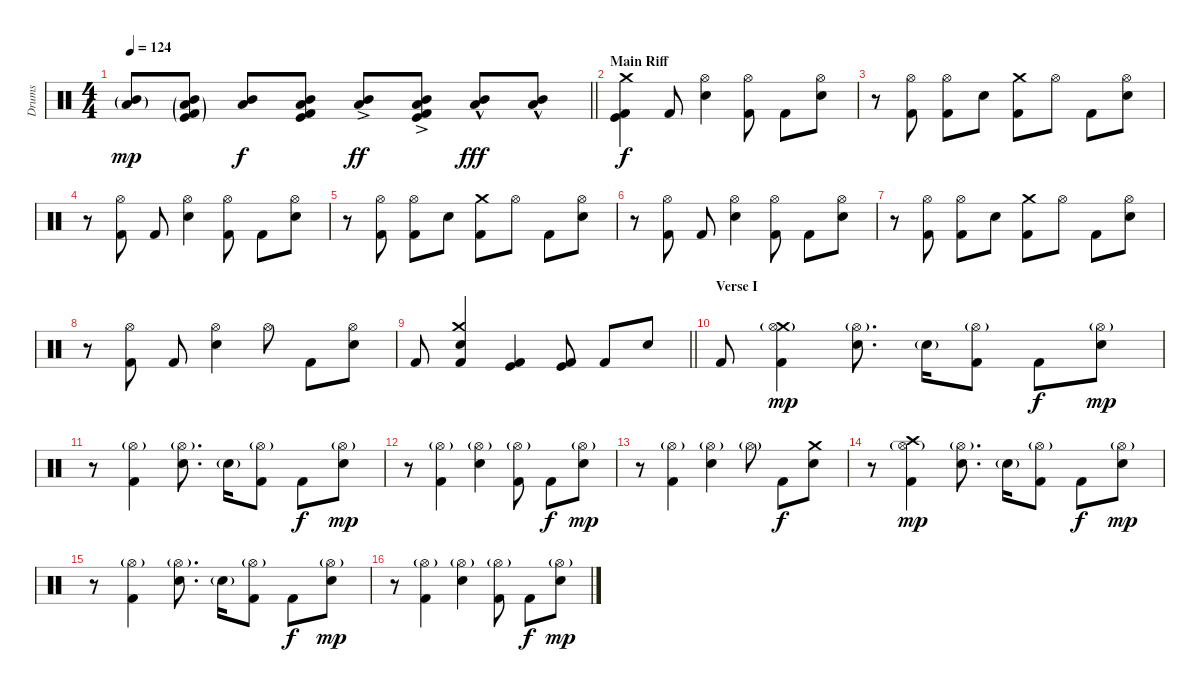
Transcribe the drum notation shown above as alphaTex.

\track ("Drums" "Drums") {instrument percussion}
\staff {score}
\articulation defaults
\ts (4 4)
\tempo 124
\clef neutral
\barLineRight lightlight
\ks c
("Mid Tom (hit)"{g} "Low Floor Tom (hit)"{g}).8{dy mp volume 10} ("Mid Tom (hit)"{g} "Kick (hit)"{g} "Kick (hit) 2"{g} "Low Floor Tom (hit)"{g}).8 ("Mid Tom (hit)" "Low Floor Tom (hit)").8{dy f} ("Mid Tom (hit)" "Kick (hit)" "Kick (hit) 2" "Low Floor Tom (hit)").8 ("Mid Tom (hit)"{ac} "Low Floor Tom (hit)"{ac}).8{dy ff} ("Mid Tom (hit)"{ac} "Kick (hit)"{ac} "Kick (hit) 2"{ac} "Low Floor Tom (hit)"{ac}).8 ("Mid Tom (hit)"{hac} "Low Floor Tom (hit)"{hac}).8{dy fff} ("Mid Tom (hit)"{hac} "Low Floor Tom (hit)"{hac}).8 |
\section ("" "Main Riff")
("Crash medium (hit)" "Kick (hit)" "Kick (hit) 2").4{dy f} "Kick (hit) 2".8 ("Electric Snare (hit)" "Hi-Hat (open)").4 ("Hi-Hat (open)" "Kick (hit) 2").8 "Kick (hit) 2".8 ("Electric Snare (hit)" "Hi-Hat (open)").8 |
r.8 ("Hi-Hat (open)" "Kick (hit) 2").8 ("Hi-Hat (open)" "Kick (hit) 2").8 "Electric Snare (hit)".8 ("Crash medium (hit)" "Kick (hit) 2").8 "Hi-Hat (open)".8 "Kick (hit) 2".8 ("Electric Snare (hit)" "Hi-Hat (open)").8 |
r.8 ("Hi-Hat (open)" "Kick (hit) 2").8 "Kick (hit) 2".8 ("Electric Snare (hit)" "Hi-Hat (open)").4 ("Hi-Hat (open)" "Kick (hit) 2").8 "Kick (hit) 2".8 ("Electric Snare (hit)" "Hi-Hat (open)").8 |
r.8 ("Hi-Hat (open)" "Kick (hit) 2").8 ("Hi-Hat (open)" "Kick (hit) 2").8 "Electric Snare (hit)".8 ("Crash medium (hit)" "Kick (hit) 2").8 "Hi-Hat (open)".8 "Kick (hit) 2".8 ("Electric Snare (hit)" "Hi-Hat (open)").8 |
r.8 ("Hi-Hat (open)" "Kick (hit) 2").8 "Kick (hit) 2".8 ("Electric Snare (hit)" "Hi-Hat (open)").4 ("Hi-Hat (open)" "Kick (hit) 2").8 "Kick (hit) 2".8 ("Electric Snare (hit)" "Hi-Hat (open)").8 |
r.8 ("Hi-Hat (open)" "Kick (hit) 2").8 ("Hi-Hat (open)" "Kick (hit) 2").8 "Electric Snare (hit)".8 ("Crash medium (hit)" "Kick (hit) 2").8 "Hi-Hat (open)".8 "Kick (hit) 2".8 ("Electric Snare (hit)" "Hi-Hat (open)").8 |
r.8 ("Hi-Hat (open)" "Kick (hit) 2").8 "Kick (hit) 2".8 ("Electric Snare (hit)" "Hi-Hat (open)").4 "Hi-Hat (open)".8 "Kick (hit) 2".8 ("Electric Snare (hit)" "Hi-Hat (open)").8 |
\barLineRight lightlight "Kick (hit) 2".8
("Electric Snare (hit)" "Crash medium (hit)" "Kick (hit) 2").4 ("Kick (hit)" "Kick (hit) 2").4 ("Kick (hit)" "Kick (hit) 2").8 "Kick (hit) 2".8 "Electric Snare (hit)".8 |
\section ("" "Verse I")
"Kick (hit) 2".8 ("Crash medium (hit)" "Kick (hit) 2" "Hi-Hat (open)"{g}).4{dy mp} ("Electric Snare (hit)" "Hi-Hat (open)"{g}).8{d} "Electric Snare (hit)"{g}.16 ("Kick (hit) 2" "Hi-Hat (open)"{g}).8 "Kick (hit) 2".8{dy f} ("Electric Snare (hit)" "Hi-Hat (open)"{g}).8{dy mp} |
r.8 ("Kick (hit) 2" "Hi-Hat (open)"{g}).4 ("Electric Snare (hit)" "Hi-Hat (open)"{g}).8{d} "Electric Snare (hit)"{g}.16 ("Kick (hit) 2" "Hi-Hat (open)"{g}).8 "Kick (hit) 2".8{dy f} ("Electric Snare (hit)" "Hi-Hat (open)"{g}).8{dy mp} |
r.8 ("Kick (hit) 2" "Hi-Hat (open)"{g}).4 ("Electric Snare (hit)" "Hi-Hat (open)"{g}).4 ("Kick (hit) 2" "Hi-Hat (open)"{g}).8 "Kick (hit) 2".8{dy f} ("Electric Snare (hit)" "Hi-Hat (open)"{g}).8{dy mp} |
r.8 ("Kick (hit) 2" "Hi-Hat (open)"{g}).4 ("Electric Snare (hit)" "Hi-Hat (open)"{g}).4 "Hi-Hat (open)"{g}.8 "Kick (hit) 2".8{dy f} ("Crash medium (hit)" "Electric Snare (hit)").8 |
r.8 ("Crash high (hit)" "Kick (hit) 2" "Hi-Hat (open)"{g}).4{dy mp} ("Electric Snare (hit)" "Hi-Hat (open)"{g}).8{d} "Electric Snare (hit)"{g}.16 ("Kick (hit) 2" "Hi-Hat (open)"{g}).8 "Kick (hit) 2".8{dy f} ("Electric Snare (hit)" "Hi-Hat (open)"{g}).8{dy mp} |
r.8 ("Kick (hit) 2" "Hi-Hat (open)"{g}).4 ("Electric Snare (hit)" "Hi-Hat (open)"{g}).8{d} "Electric Snare (hit)"{g}.16 ("Kick (hit) 2" "Hi-Hat (open)"{g}).8 "Kick (hit) 2".8{dy f} ("Electric Snare (hit)" "Hi-Hat (open)"{g}).8{dy mp} |
r.8 ("Kick (hit) 2" "Hi-Hat (open)"{g}).4 ("Electric Snare (hit)" "Hi-Hat (open)"{g}).4 ("Kick (hit) 2" "Hi-Hat (open)"{g}).8 "Kick (hit) 2".8{dy f} ("Electric Snare (hit)" "Hi-Hat (open)"{g}).8{dy mp}
